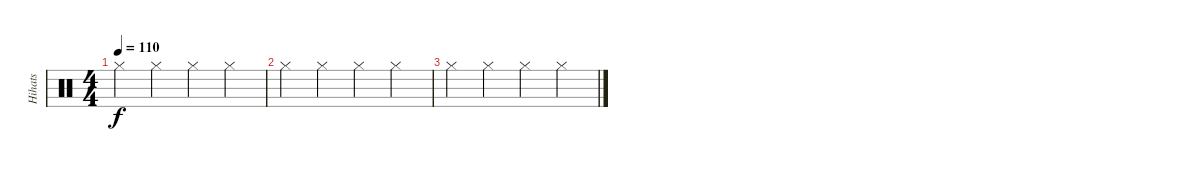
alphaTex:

\track ("Hihats" "Hihats") {instrument percussion}
\staff {score}
\articulation defaults
\ts (4 4)
\tempo 110
\clef neutral
\ks c "Hi-Hat (closed)".4{dy f} "Hi-Hat (closed)".4 "Hi-Hat (closed)".4 "Hi-Hat (closed)".4
|
"Hi-Hat (closed)".4 "Hi-Hat (closed)".4 "Hi-Hat (closed)".4 "Hi-Hat (closed)".4 |
"Hi-Hat (closed)".4 "Hi-Hat (closed)".4 "Hi-Hat (closed)".4 "Hi-Hat (closed)".4
